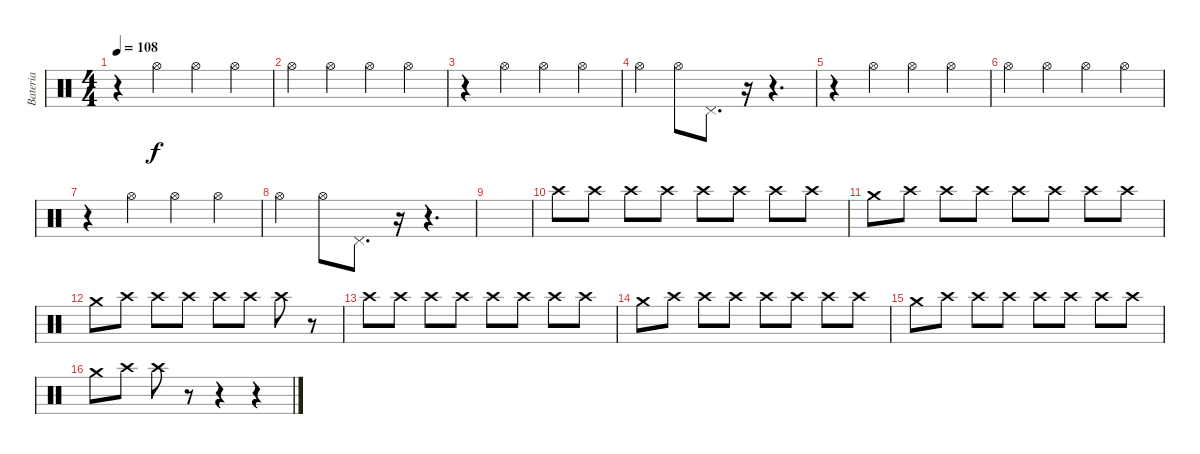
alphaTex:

\track ("Bateria" "Bateria") {instrument percussion}
\staff {score}
\articulation defaults
\ts (4 4)
\tempo 108
\clef neutral
\ks c
r.4{dy f} "Hi-Hat (open)".4 "Hi-Hat (open)".4 "Hi-Hat (open)".4 |
"Hi-Hat (open)".4 "Hi-Hat (open)".4 "Hi-Hat (open)".4 "Hi-Hat (open)".4 |
r.4 "Hi-Hat (open)".4 "Hi-Hat (open)".4 "Hi-Hat (open)".4 |
"Hi-Hat (open)".4 "Hi-Hat (open)".8 "Pedal Hi-Hat (hit)".8{d} r.16 r.4{d} |
r.4 "Hi-Hat (open)".4 "Hi-Hat (open)".4 "Hi-Hat (open)".4 |
"Hi-Hat (open)".4 "Hi-Hat (open)".4 "Hi-Hat (open)".4 "Hi-Hat (open)".4 |
r.4 "Hi-Hat (open)".4 "Hi-Hat (open)".4 "Hi-Hat (open)".4 |
"Hi-Hat (open)".4 "Hi-Hat (open)".8 "Pedal Hi-Hat (hit)".8{d} r.16 r.4{d} |
|
"Crash high (hit)".8 "Crash high (hit)".8 "Crash high (hit)".8 "Crash high (hit)".8 "Crash high (hit)".8 "Crash high (hit)".8 "Crash high (hit)".8 "Crash high (hit)".8 |
"Crash medium (hit)".8 "Crash high (hit)".8 "Crash high (hit)".8 "Crash high (hit)".8 "Crash high (hit)".8 "Crash high (hit)".8 "Crash high (hit)".8 "Crash high (hit)".8 |
"Crash medium (hit)".8 "Crash high (hit)".8 "Crash high (hit)".8 "Crash high (hit)".8 "Crash high (hit)".8 "Crash high (hit)".8 "Crash high (hit)".8 r.8 |
"Crash high (hit)".8 "Crash high (hit)".8 "Crash high (hit)".8 "Crash high (hit)".8 "Crash high (hit)".8 "Crash high (hit)".8 "Crash high (hit)".8 "Crash high (hit)".8 |
"Crash medium (hit)".8 "Crash high (hit)".8 "Crash high (hit)".8 "Crash high (hit)".8 "Crash high (hit)".8 "Crash high (hit)".8 "Crash high (hit)".8 "Crash high (hit)".8 |
"Crash medium (hit)".8 "Crash high (hit)".8 "Crash high (hit)".8 "Crash high (hit)".8 "Crash high (hit)".8 "Crash high (hit)".8 "Crash high (hit)".8 "Crash high (hit)".8 |
"Crash medium (hit)".8 "Crash high (hit)".8 "Crash high (hit)".8 r.8 r.4 r.4
